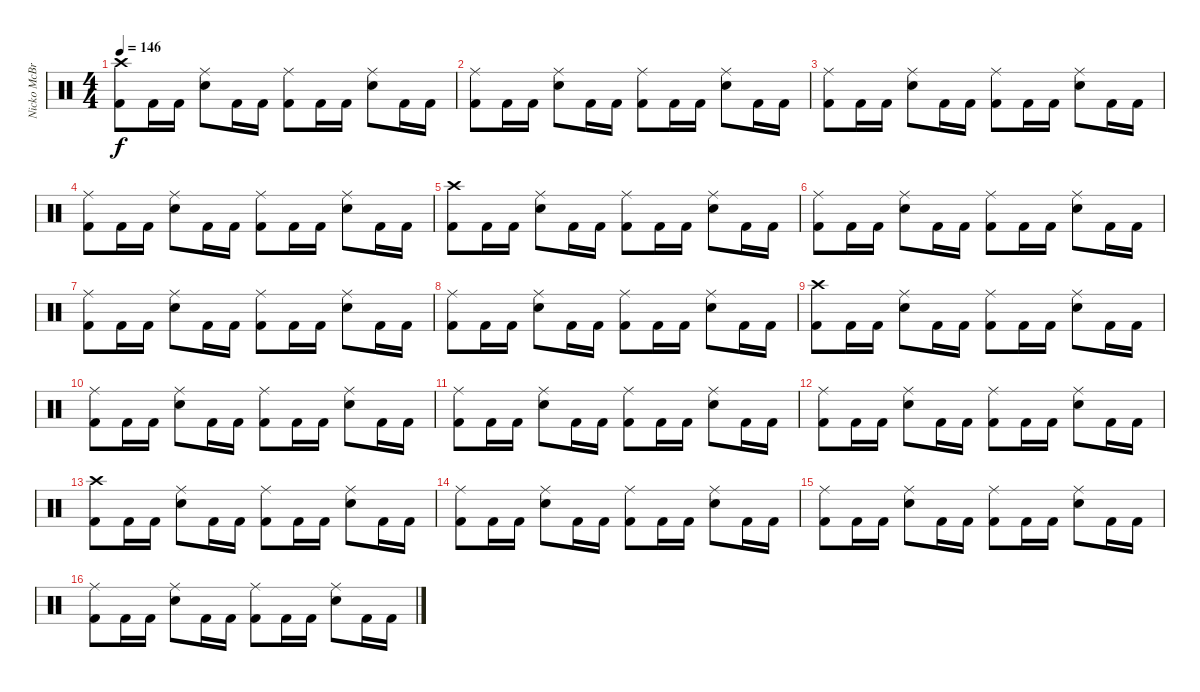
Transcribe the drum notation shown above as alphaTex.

\track ("Nicko McBrain" "Nicko McBr") {instrument percussion}
\staff {score}
\articulation defaults
\ts (4 4)
\tempo 146
\clef neutral
\ks c
("Crash high (hit)" "Kick (hit) 2").8{dy f} "Kick (hit) 2".16 "Kick (hit) 2".16 ("Ride (middle)" "Snare (hit) 2").8 "Kick (hit) 2".16 "Kick (hit) 2".16 ("Ride (middle)" "Kick (hit) 2").8 "Kick (hit) 2".16 "Kick (hit) 2".16 ("Ride (middle)" "Snare (hit) 2").8 "Kick (hit) 2".16 "Kick (hit) 2".16 |
("Ride (middle)" "Kick (hit) 2").8 "Kick (hit) 2".16 "Kick (hit) 2".16 ("Ride (middle)" "Snare (hit) 2").8 "Kick (hit) 2".16 "Kick (hit) 2".16 ("Ride (middle)" "Kick (hit) 2").8 "Kick (hit) 2".16 "Kick (hit) 2".16 ("Ride (middle)" "Snare (hit) 2").8 "Kick (hit) 2".16 "Kick (hit) 2".16 |
("Ride (middle)" "Kick (hit) 2").8 "Kick (hit) 2".16 "Kick (hit) 2".16 ("Ride (middle)" "Snare (hit) 2").8 "Kick (hit) 2".16 "Kick (hit) 2".16 ("Ride (middle)" "Kick (hit) 2").8 "Kick (hit) 2".16 "Kick (hit) 2".16 ("Ride (middle)" "Snare (hit) 2").8 "Kick (hit) 2".16 "Kick (hit) 2".16 |
("Ride (middle)" "Kick (hit) 2").8 "Kick (hit) 2".16 "Kick (hit) 2".16 ("Ride (middle)" "Snare (hit) 2").8 "Kick (hit) 2".16 "Kick (hit) 2".16 ("Ride (middle)" "Kick (hit) 2").8 "Kick (hit) 2".16 "Kick (hit) 2".16 ("Ride (middle)" "Snare (hit) 2").8 "Kick (hit) 2".16 "Kick (hit) 2".16 |
("Crash high (hit)" "Kick (hit) 2").8 "Kick (hit) 2".16 "Kick (hit) 2".16 ("Ride (middle)" "Snare (hit) 2").8 "Kick (hit) 2".16 "Kick (hit) 2".16 ("Ride (middle)" "Kick (hit) 2").8 "Kick (hit) 2".16 "Kick (hit) 2".16 ("Ride (middle)" "Snare (hit) 2").8 "Kick (hit) 2".16 "Kick (hit) 2".16 |
("Ride (middle)" "Kick (hit) 2").8 "Kick (hit) 2".16 "Kick (hit) 2".16 ("Ride (middle)" "Snare (hit) 2").8 "Kick (hit) 2".16 "Kick (hit) 2".16 ("Ride (middle)" "Kick (hit) 2").8 "Kick (hit) 2".16 "Kick (hit) 2".16 ("Ride (middle)" "Snare (hit) 2").8 "Kick (hit) 2".16 "Kick (hit) 2".16 |
("Ride (middle)" "Kick (hit) 2").8 "Kick (hit) 2".16 "Kick (hit) 2".16 ("Ride (middle)" "Snare (hit) 2").8 "Kick (hit) 2".16 "Kick (hit) 2".16 ("Ride (middle)" "Kick (hit) 2").8 "Kick (hit) 2".16 "Kick (hit) 2".16 ("Ride (middle)" "Snare (hit) 2").8 "Kick (hit) 2".16 "Kick (hit) 2".16 |
("Ride (middle)" "Kick (hit) 2").8 "Kick (hit) 2".16 "Kick (hit) 2".16 ("Ride (middle)" "Snare (hit) 2").8 "Kick (hit) 2".16 "Kick (hit) 2".16 ("Ride (middle)" "Kick (hit) 2").8 "Kick (hit) 2".16 "Kick (hit) 2".16 ("Ride (middle)" "Snare (hit) 2").8 "Kick (hit) 2".16 "Kick (hit) 2".16 |
("Crash high (hit)" "Kick (hit) 2").8 "Kick (hit) 2".16 "Kick (hit) 2".16 ("Ride (middle)" "Snare (hit) 2").8 "Kick (hit) 2".16 "Kick (hit) 2".16 ("Ride (middle)" "Kick (hit) 2").8 "Kick (hit) 2".16 "Kick (hit) 2".16 ("Ride (middle)" "Snare (hit) 2").8 "Kick (hit) 2".16 "Kick (hit) 2".16 |
("Ride (middle)" "Kick (hit) 2").8 "Kick (hit) 2".16 "Kick (hit) 2".16 ("Ride (middle)" "Snare (hit) 2").8 "Kick (hit) 2".16 "Kick (hit) 2".16 ("Ride (middle)" "Kick (hit) 2").8 "Kick (hit) 2".16 "Kick (hit) 2".16 ("Ride (middle)" "Snare (hit) 2").8 "Kick (hit) 2".16 "Kick (hit) 2".16 |
("Ride (middle)" "Kick (hit) 2").8 "Kick (hit) 2".16 "Kick (hit) 2".16 ("Ride (middle)" "Snare (hit) 2").8 "Kick (hit) 2".16 "Kick (hit) 2".16 ("Ride (middle)" "Kick (hit) 2").8 "Kick (hit) 2".16 "Kick (hit) 2".16 ("Ride (middle)" "Snare (hit) 2").8 "Kick (hit) 2".16 "Kick (hit) 2".16 |
("Ride (middle)" "Kick (hit) 2").8 "Kick (hit) 2".16 "Kick (hit) 2".16 ("Ride (middle)" "Snare (hit) 2").8 "Kick (hit) 2".16 "Kick (hit) 2".16 ("Ride (middle)" "Kick (hit) 2").8 "Kick (hit) 2".16 "Kick (hit) 2".16 ("Ride (middle)" "Snare (hit) 2").8 "Kick (hit) 2".16 "Kick (hit) 2".16 |
("Crash high (hit)" "Kick (hit) 2").8 "Kick (hit) 2".16 "Kick (hit) 2".16 ("Ride (middle)" "Snare (hit) 2").8 "Kick (hit) 2".16 "Kick (hit) 2".16 ("Ride (middle)" "Kick (hit) 2").8 "Kick (hit) 2".16 "Kick (hit) 2".16 ("Ride (middle)" "Snare (hit) 2").8 "Kick (hit) 2".16 "Kick (hit) 2".16 |
("Ride (middle)" "Kick (hit) 2").8 "Kick (hit) 2".16 "Kick (hit) 2".16 ("Ride (middle)" "Snare (hit) 2").8 "Kick (hit) 2".16 "Kick (hit) 2".16 ("Ride (middle)" "Kick (hit) 2").8 "Kick (hit) 2".16 "Kick (hit) 2".16 ("Ride (middle)" "Snare (hit) 2").8 "Kick (hit) 2".16 "Kick (hit) 2".16 |
("Ride (middle)" "Kick (hit) 2").8 "Kick (hit) 2".16 "Kick (hit) 2".16 ("Ride (middle)" "Snare (hit) 2").8 "Kick (hit) 2".16 "Kick (hit) 2".16 ("Ride (middle)" "Kick (hit) 2").8 "Kick (hit) 2".16 "Kick (hit) 2".16 ("Ride (middle)" "Snare (hit) 2").8 "Kick (hit) 2".16 "Kick (hit) 2".16 |
("Ride (middle)" "Kick (hit) 2").8 "Kick (hit) 2".16 "Kick (hit) 2".16 ("Ride (middle)" "Snare (hit) 2").8 "Kick (hit) 2".16 "Kick (hit) 2".16 ("Ride (middle)" "Kick (hit) 2").8 "Kick (hit) 2".16 "Kick (hit) 2".16 ("Ride (middle)" "Snare (hit) 2").8 "Kick (hit) 2".16 "Kick (hit) 2".16
